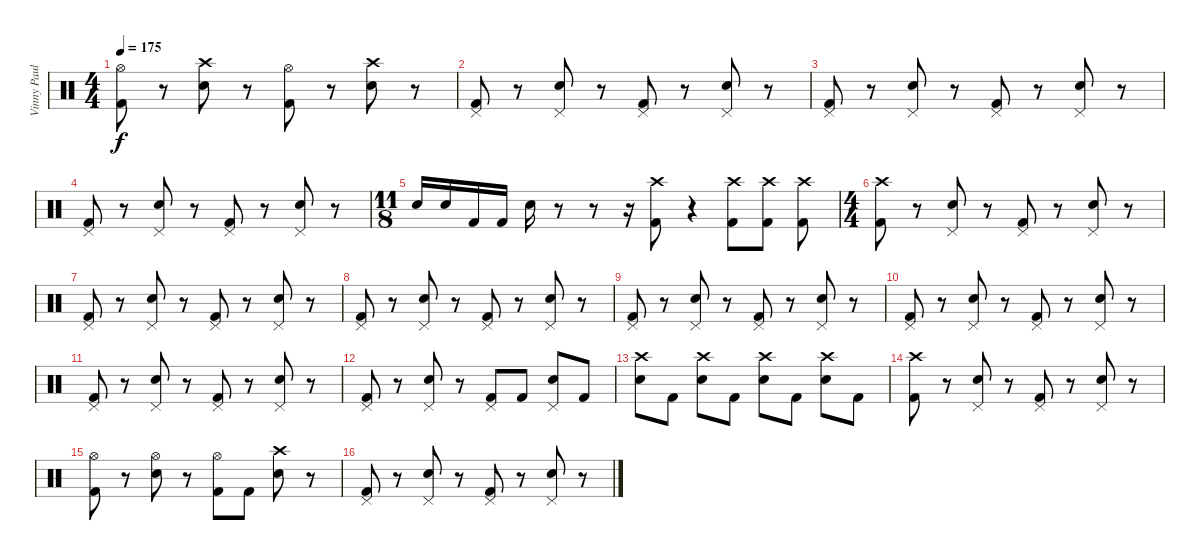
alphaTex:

\track ("Vinny Paul" "Vinny Paul") {instrument percussion}
\staff {score}
\articulation defaults
\ts (4 4)
\tempo 175
\clef neutral
\ks c
("Hi-Hat (open)" "Kick (hit) 2").8{dy f} r.8 ("Crash high (hit)" "Snare (hit) 2").8 r.8 ("Hi-Hat (open)" "Kick (hit) 2").8 r.8 ("Crash high (hit)" "Snare (hit) 2").8 r.8 |
("Pedal Hi-Hat (hit)" "Kick (hit) 2").8 r.8 ("Pedal Hi-Hat (hit)" "Snare (hit) 2").8 r.8 ("Pedal Hi-Hat (hit)" "Kick (hit) 2").8 r.8 ("Pedal Hi-Hat (hit)" "Snare (hit) 2").8 r.8 |
("Pedal Hi-Hat (hit)" "Kick (hit) 2").8 r.8 ("Pedal Hi-Hat (hit)" "Snare (hit) 2").8 r.8 ("Pedal Hi-Hat (hit)" "Kick (hit) 2").8 r.8 ("Pedal Hi-Hat (hit)" "Snare (hit) 2").8 r.8 |
("Pedal Hi-Hat (hit)" "Kick (hit) 2").8 r.8 ("Pedal Hi-Hat (hit)" "Snare (hit) 2").8 r.8 ("Pedal Hi-Hat (hit)" "Kick (hit) 2").8 r.8 ("Pedal Hi-Hat (hit)" "Snare (hit) 2").8 r.8 |
\ts (11 8)
"Snare (hit) 2".16 "Snare (hit) 2".16 "Kick (hit) 2".16 "Kick (hit) 2".16 "Snare (hit) 2".16 r.8 r.8 r.16 ("Crash high (hit)" "Kick (hit) 2").8 r.4 ("Crash high (hit)" "Kick (hit) 2").8 ("Crash high (hit)" "Kick (hit) 2").8 ("Crash high (hit)" "Kick (hit) 2").8 |
\ts (4 4)
("Crash high (hit)" "Kick (hit) 2").8 r.8 ("Pedal Hi-Hat (hit)" "Snare (hit) 2").8 r.8 ("Pedal Hi-Hat (hit)" "Kick (hit) 2").8 r.8 ("Pedal Hi-Hat (hit)" "Snare (hit) 2").8 r.8 |
("Pedal Hi-Hat (hit)" "Kick (hit) 2").8 r.8 ("Pedal Hi-Hat (hit)" "Snare (hit) 2").8 r.8 ("Pedal Hi-Hat (hit)" "Kick (hit) 2").8 r.8 ("Pedal Hi-Hat (hit)" "Snare (hit) 2").8 r.8 |
("Pedal Hi-Hat (hit)" "Kick (hit) 2").8 r.8 ("Pedal Hi-Hat (hit)" "Snare (hit) 2").8 r.8 ("Pedal Hi-Hat (hit)" "Kick (hit) 2").8 r.8 ("Pedal Hi-Hat (hit)" "Snare (hit) 2").8 r.8 |
("Pedal Hi-Hat (hit)" "Kick (hit) 2").8 r.8 ("Pedal Hi-Hat (hit)" "Snare (hit) 2").8 r.8 ("Pedal Hi-Hat (hit)" "Kick (hit) 2").8 r.8 ("Pedal Hi-Hat (hit)" "Snare (hit) 2").8 r.8 |
("Pedal Hi-Hat (hit)" "Kick (hit) 2").8 r.8 ("Pedal Hi-Hat (hit)" "Snare (hit) 2").8 r.8 ("Pedal Hi-Hat (hit)" "Kick (hit) 2").8 r.8 ("Pedal Hi-Hat (hit)" "Snare (hit) 2").8 r.8 |
("Pedal Hi-Hat (hit)" "Kick (hit) 2").8 r.8 ("Pedal Hi-Hat (hit)" "Snare (hit) 2").8 r.8 ("Pedal Hi-Hat (hit)" "Kick (hit) 2").8 r.8 ("Pedal Hi-Hat (hit)" "Snare (hit) 2").8 r.8 |
("Pedal Hi-Hat (hit)" "Kick (hit) 2").8 r.8 ("Pedal Hi-Hat (hit)" "Snare (hit) 2").8 r.8 ("Pedal Hi-Hat (hit)" "Kick (hit) 2").8 "Kick (hit) 2".8 ("Pedal Hi-Hat (hit)" "Snare (hit) 2").8 "Kick (hit) 2".8 |
("Crash high (hit)" "Snare (hit) 2").8 "Kick (hit) 2".8 ("Crash high (hit)" "Snare (hit) 2").8 "Kick (hit) 2".8 ("Crash high (hit)" "Snare (hit) 2").8 "Kick (hit) 2".8 ("Crash high (hit)" "Snare (hit) 2").8 "Kick (hit) 2".8 |
("Crash high (hit)" "Kick (hit) 2").8 r.8 ("Pedal Hi-Hat (hit)" "Snare (hit) 2").8 r.8 ("Pedal Hi-Hat (hit)" "Kick (hit) 2").8 r.8 ("Pedal Hi-Hat (hit)" "Snare (hit) 2").8 r.8 |
("Hi-Hat (open)" "Kick (hit) 2").8 r.8 ("Hi-Hat (open)" "Snare (hit) 2").8 r.8 ("Hi-Hat (open)" "Kick (hit) 2").8 "Kick (hit) 2".8 ("Crash high (hit)" "Snare (hit) 2").8 r.8 |
("Pedal Hi-Hat (hit)" "Kick (hit) 2").8 r.8 ("Pedal Hi-Hat (hit)" "Snare (hit) 2").8 r.8 ("Pedal Hi-Hat (hit)" "Kick (hit) 2").8 r.8 ("Pedal Hi-Hat (hit)" "Snare (hit) 2").8 r.8
